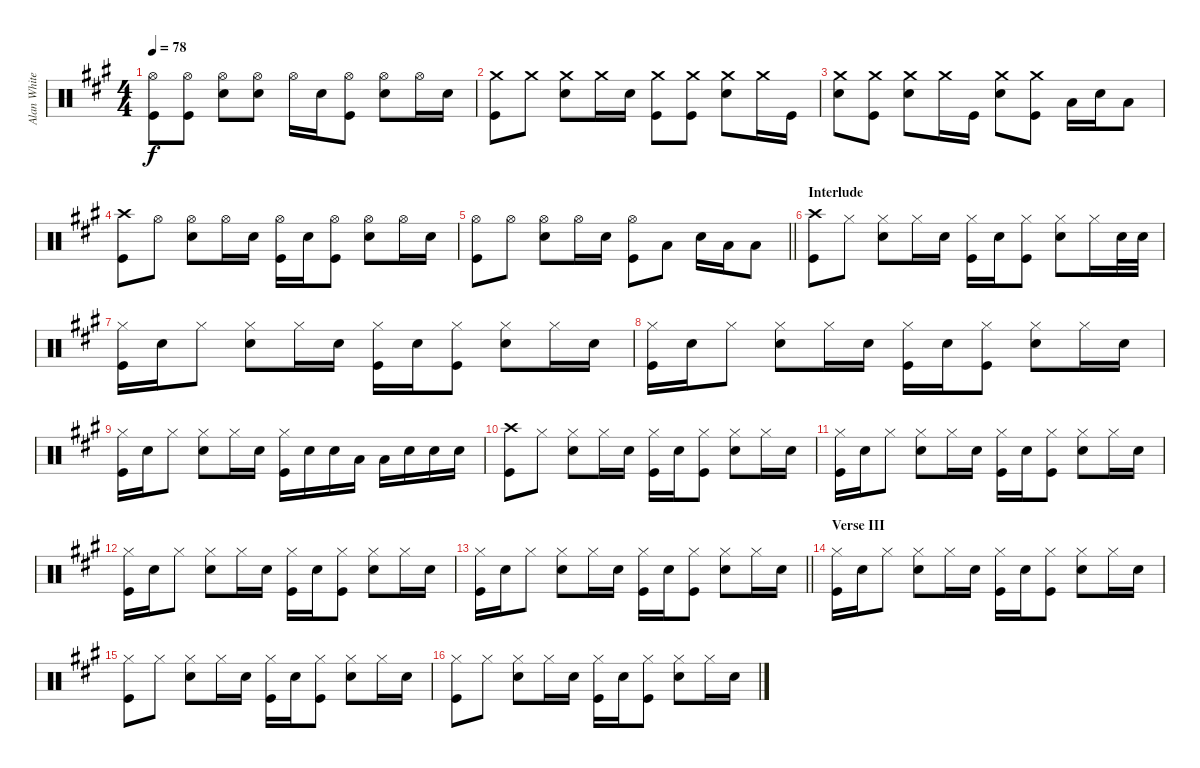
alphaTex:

\track ("Alan White (Drums)" "Alan White") {instrument percussion}
\staff {score}
\articulation defaults
\ts (4 4)
\tempo 78
\clef neutral
\ks a
("Hi-Hat (open)" "Kick (hit)").8{dy f} ("Hi-Hat (open)" "Kick (hit)").8 ("Hi-Hat (open)" "Snare (hit) 2").8 ("Hi-Hat (open)" "Snare (hit) 2").8 "Hi-Hat (open)".16 "Snare (hit) 2".16 ("Hi-Hat (open)" "Kick (hit)").8 ("Hi-Hat (open)" "Snare (hit) 2").8 "Hi-Hat (open)".16 "Snare (hit) 2".16 |
("Crash medium (hit)" "Kick (hit)").8 "Crash medium (hit)".8 ("Crash medium (hit)" "Snare (hit) 2").8 "Crash medium (hit)".16 "Snare (hit) 2".16 ("Crash medium (hit)" "Kick (hit)").8 ("Crash medium (hit)" "Kick (hit)").8 ("Crash medium (hit)" "Snare (hit) 2").8 "Crash medium (hit)".16 "Kick (hit)".16 |
("Crash medium (hit)" "Snare (hit) 2").8 ("Crash medium (hit)" "Kick (hit)").8 ("Crash medium (hit)" "Snare (hit) 2").8 "Crash medium (hit)".16 "Kick (hit)".16 ("Crash medium (hit)" "Snare (hit) 2").8 ("Crash medium (hit)" "Kick (hit)").8 "Low Tom (hit)".16 "Snare (hit) 2".16 "Low Tom (hit)".8 |
("Crash high (hit)" "Kick (hit)").8 "Hi-Hat (open)".8 ("Hi-Hat (open)" "Snare (hit) 2").8 "Hi-Hat (open)".16 "Snare (hit) 2".16 ("Hi-Hat (open)" "Kick (hit)").16 "Snare (hit) 2".16 ("Hi-Hat (open)" "Kick (hit)").8 ("Hi-Hat (open)" "Snare (hit) 2").8 "Hi-Hat (open)".16 "Snare (hit) 2".16 |
\barLineRight lightlight
("Hi-Hat (open)" "Kick (hit)").8 "Hi-Hat (open)".8 ("Hi-Hat (open)" "Snare (hit) 2").8 "Hi-Hat (open)".16 "Snare (hit) 2".16 ("Hi-Hat (open)" "Kick (hit)").8 "Low Tom (hit)".8 "Snare (hit) 2".16 "Low Tom (hit)".16 "Low Tom (hit)".8 |
\section ("" "Interlude")
("Crash high (hit)" "Kick (hit)").8 "Hi-Hat (closed)".8 ("Hi-Hat (closed)" "Snare (hit) 2").8 "Hi-Hat (closed)".16 "Snare (hit) 2".16 ("Hi-Hat (closed)" "Kick (hit)").16 "Snare (hit) 2".16 ("Hi-Hat (closed)" "Kick (hit)").8 ("Hi-Hat (closed)" "Snare (hit) 2").8 "Hi-Hat (closed)".16 "Snare (hit) 2".32 "Snare (hit) 2".32 |
("Hi-Hat (closed)" "Kick (hit)").16 "Snare (hit) 2".16 "Hi-Hat (closed)".8 ("Hi-Hat (closed)" "Snare (hit) 2").8 "Hi-Hat (closed)".16 "Snare (hit) 2".16 ("Hi-Hat (closed)" "Kick (hit)").16 "Snare (hit) 2".16 ("Hi-Hat (closed)" "Kick (hit)").8 ("Hi-Hat (closed)" "Snare (hit) 2").8 "Hi-Hat (closed)".16 "Snare (hit) 2".16 |
("Hi-Hat (closed)" "Kick (hit)").16 "Snare (hit) 2".16 "Hi-Hat (closed)".8 ("Hi-Hat (closed)" "Snare (hit) 2").8 "Hi-Hat (closed)".16 "Snare (hit) 2".16 ("Hi-Hat (closed)" "Kick (hit)").16 "Snare (hit) 2".16 ("Hi-Hat (closed)" "Kick (hit)").8 ("Hi-Hat (closed)" "Snare (hit) 2").8 "Hi-Hat (closed)".16 "Snare (hit) 2".16 |
("Hi-Hat (closed)" "Kick (hit)").16 "Snare (hit) 2".16 "Hi-Hat (closed)".8 ("Hi-Hat (closed)" "Snare (hit) 2").8 "Hi-Hat (closed)".16 "Snare (hit) 2".16 ("Hi-Hat (closed)" "Kick (hit)").16 "Snare (hit) 2".16 "Snare (hit) 2".16 "Low Tom (hit)".16 "Low Tom (hit)".16 "Snare (hit) 2".16 "Snare (hit) 2".16 "Snare (hit) 2".16 |
("Crash high (hit)" "Kick (hit)").8 "Hi-Hat (closed)".8 ("Hi-Hat (closed)" "Snare (hit) 2").8 "Hi-Hat (closed)".16 "Snare (hit) 2".16 ("Hi-Hat (closed)" "Kick (hit)").16 "Snare (hit) 2".16 ("Hi-Hat (closed)" "Kick (hit)").8 ("Hi-Hat (closed)" "Snare (hit) 2").8 "Hi-Hat (closed)".16 "Snare (hit) 2".16 |
("Hi-Hat (closed)" "Kick (hit)").16 "Snare (hit) 2".16 "Hi-Hat (closed)".8 ("Hi-Hat (closed)" "Snare (hit) 2").8 "Hi-Hat (closed)".16 "Snare (hit) 2".16 ("Hi-Hat (closed)" "Kick (hit)").16 "Snare (hit) 2".16 ("Hi-Hat (closed)" "Kick (hit)").8 ("Hi-Hat (closed)" "Snare (hit) 2").8 "Hi-Hat (closed)".16 "Snare (hit) 2".16 |
("Hi-Hat (closed)" "Kick (hit)").16 "Snare (hit) 2".16 "Hi-Hat (closed)".8 ("Hi-Hat (closed)" "Snare (hit) 2").8 "Hi-Hat (closed)".16 "Snare (hit) 2".16 ("Hi-Hat (closed)" "Kick (hit)").16 "Snare (hit) 2".16 ("Hi-Hat (closed)" "Kick (hit)").8 ("Hi-Hat (closed)" "Snare (hit) 2").8 "Hi-Hat (closed)".16 "Snare (hit) 2".16 |
\barLineRight lightlight
("Hi-Hat (closed)" "Kick (hit)").16 "Snare (hit) 2".16 "Hi-Hat (closed)".8 ("Hi-Hat (closed)" "Snare (hit) 2").8 "Hi-Hat (closed)".16 "Snare (hit) 2".16 ("Hi-Hat (closed)" "Kick (hit)").16 "Snare (hit) 2".16 ("Hi-Hat (closed)" "Kick (hit)").8 ("Hi-Hat (closed)" "Snare (hit) 2").8 "Hi-Hat (closed)".16 "Snare (hit) 2".16 |
\section ("" "Verse III")
("Hi-Hat (closed)" "Kick (hit)").16 "Snare (hit) 2".16 "Hi-Hat (closed)".8 ("Hi-Hat (closed)" "Snare (hit) 2").8 "Hi-Hat (closed)".16 "Snare (hit) 2".16 ("Hi-Hat (closed)" "Kick (hit)").16 "Snare (hit) 2".16 ("Hi-Hat (closed)" "Kick (hit)").8 ("Hi-Hat (closed)" "Snare (hit) 2").8 "Hi-Hat (closed)".16 "Snare (hit) 2".16 |
("Hi-Hat (closed)" "Kick (hit)").8 "Hi-Hat (closed)".8 ("Hi-Hat (closed)" "Snare (hit) 2").8 "Hi-Hat (closed)".16 "Snare (hit) 2".16 ("Hi-Hat (closed)" "Kick (hit)").16 "Snare (hit) 2".16 ("Hi-Hat (closed)" "Kick (hit)").8 ("Hi-Hat (closed)" "Snare (hit) 2").8 "Hi-Hat (closed)".16 "Snare (hit) 2".16 |
("Hi-Hat (closed)" "Kick (hit)").8 "Hi-Hat (closed)".8 ("Hi-Hat (closed)" "Snare (hit) 2").8 "Hi-Hat (closed)".16 "Snare (hit) 2".16 ("Hi-Hat (closed)" "Kick (hit)").16 "Snare (hit) 2".16 ("Hi-Hat (closed)" "Kick (hit)").8 ("Hi-Hat (closed)" "Snare (hit) 2").8 "Hi-Hat (closed)".16 "Snare (hit) 2".16
